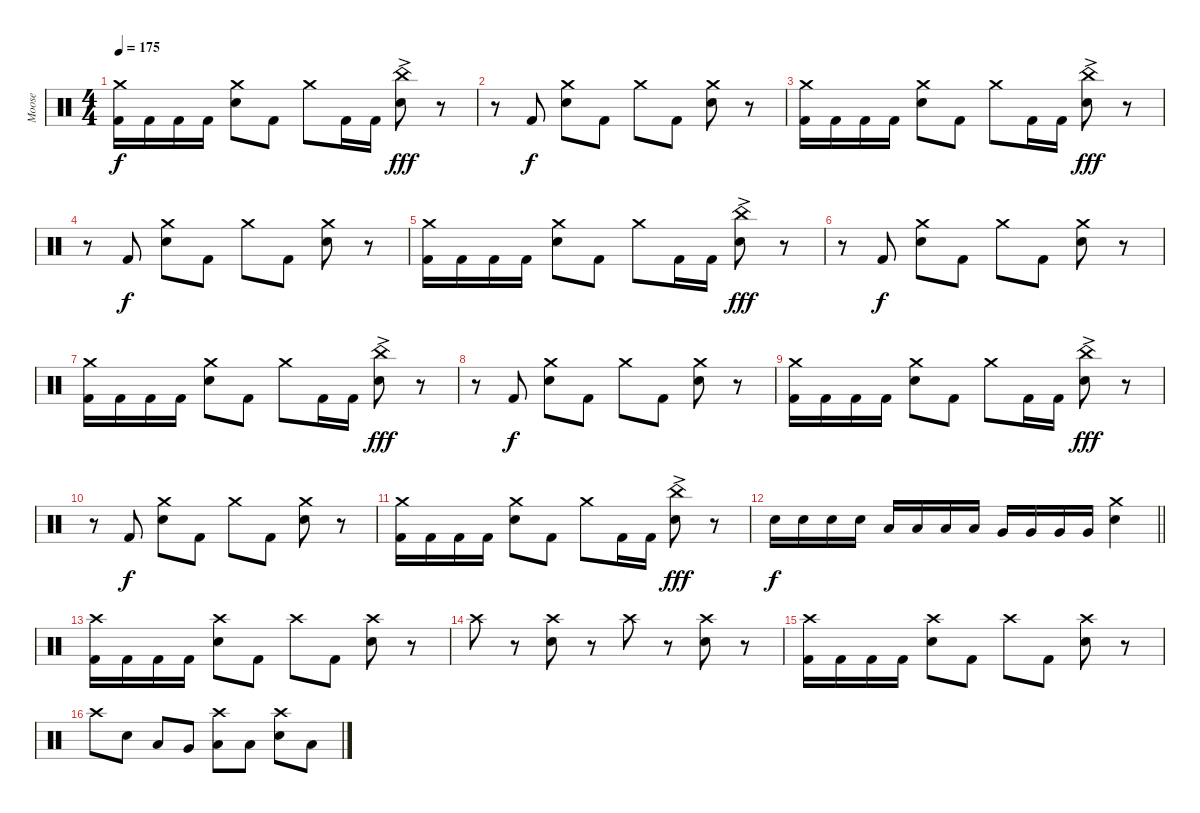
\track ("Moose" "Moose") {instrument percussion}
\staff {score}
\articulation defaults
\ts (4 4)
\tempo 175
\clef neutral
\ks c
("Crash medium (hit)" "Kick (hit) 2").16{dy f} "Kick (hit) 2".16 "Kick (hit) 2".16 "Kick (hit) 2".16 ("Crash medium (hit)" "Electric Snare (hit)").8 "Kick (hit) 2".8 "Crash medium (hit)".8 "Kick (hit) 2".16 "Kick (hit) 2".16 ("China (hit)"{ac} "Electric Snare (hit)").8{dy fff} r.8 |
r.8 "Kick (hit) 2".8{dy f} ("Crash medium (hit)" "Electric Snare (hit)").8 "Kick (hit) 2".8 "Crash medium (hit)".8 "Kick (hit) 2".8 ("Crash medium (hit)" "Electric Snare (hit)").8 r.8 |
("Crash medium (hit)" "Kick (hit) 2").16 "Kick (hit) 2".16 "Kick (hit) 2".16 "Kick (hit) 2".16 ("Crash medium (hit)" "Electric Snare (hit)").8 "Kick (hit) 2".8 "Crash medium (hit)".8 "Kick (hit) 2".16 "Kick (hit) 2".16 ("China (hit)"{ac} "Electric Snare (hit)").8{dy fff} r.8 |
r.8 "Kick (hit) 2".8{dy f} ("Crash medium (hit)" "Electric Snare (hit)").8 "Kick (hit) 2".8 "Crash medium (hit)".8 "Kick (hit) 2".8 ("Crash medium (hit)" "Electric Snare (hit)").8 r.8 |
("Crash medium (hit)" "Kick (hit) 2").16 "Kick (hit) 2".16 "Kick (hit) 2".16 "Kick (hit) 2".16 ("Crash medium (hit)" "Electric Snare (hit)").8 "Kick (hit) 2".8 "Crash medium (hit)".8 "Kick (hit) 2".16 "Kick (hit) 2".16 ("China (hit)"{ac} "Electric Snare (hit)").8{dy fff} r.8 |
r.8 "Kick (hit) 2".8{dy f} ("Crash medium (hit)" "Electric Snare (hit)").8 "Kick (hit) 2".8 "Crash medium (hit)".8 "Kick (hit) 2".8 ("Crash medium (hit)" "Electric Snare (hit)").8 r.8 |
("Crash medium (hit)" "Kick (hit) 2").16 "Kick (hit) 2".16 "Kick (hit) 2".16 "Kick (hit) 2".16 ("Crash medium (hit)" "Electric Snare (hit)").8 "Kick (hit) 2".8 "Crash medium (hit)".8 "Kick (hit) 2".16 "Kick (hit) 2".16 ("China (hit)"{ac} "Electric Snare (hit)").8{dy fff} r.8 |
r.8 "Kick (hit) 2".8{dy f} ("Crash medium (hit)" "Electric Snare (hit)").8 "Kick (hit) 2".8 "Crash medium (hit)".8 "Kick (hit) 2".8 ("Crash medium (hit)" "Electric Snare (hit)").8 r.8 |
("Crash medium (hit)" "Kick (hit) 2").16 "Kick (hit) 2".16 "Kick (hit) 2".16 "Kick (hit) 2".16 ("Crash medium (hit)" "Electric Snare (hit)").8 "Kick (hit) 2".8 "Crash medium (hit)".8 "Kick (hit) 2".16 "Kick (hit) 2".16 ("China (hit)"{ac} "Electric Snare (hit)").8{dy fff} r.8 |
r.8 "Kick (hit) 2".8{dy f} ("Crash medium (hit)" "Electric Snare (hit)").8 "Kick (hit) 2".8 "Crash medium (hit)".8 "Kick (hit) 2".8 ("Crash medium (hit)" "Electric Snare (hit)").8 r.8 |
("Crash medium (hit)" "Kick (hit) 2").16 "Kick (hit) 2".16 "Kick (hit) 2".16 "Kick (hit) 2".16 ("Crash medium (hit)" "Electric Snare (hit)").8 "Kick (hit) 2".8 "Crash medium (hit)".8 "Kick (hit) 2".16 "Kick (hit) 2".16 ("China (hit)"{ac} "Electric Snare (hit)").8{dy fff} r.8 |
\barLineRight lightlight "Electric Snare (hit)".16{dy f} "Electric Snare (hit)".16 "Electric Snare (hit)".16 "Electric Snare (hit)".16 "Low Tom (hit)".16 "Low Tom (hit)".16 "Low Tom (hit)".16 "Low Tom (hit)".16 "Very Low Tom (hit)".16 "Very Low Tom (hit)".16 "Very Low Tom (hit)".16 "Very Low Tom (hit)".16
("Crash medium (hit)" "Electric Snare (hit)").4 |
("Crash high (hit)" "Kick (hit) 2").16 "Kick (hit) 2".16 "Kick (hit) 2".16 "Kick (hit) 2".16 ("Crash high (hit)" "Electric Snare (hit)").8 "Kick (hit) 2".8 "Crash high (hit)".8 "Kick (hit) 2".8 ("Crash high (hit)" "Electric Snare (hit)").8 r.8 |
"Crash high (hit)".8 r.8 ("Crash high (hit)" "Electric Snare (hit)").8 r.8 "Crash high (hit)".8 r.8 ("Crash high (hit)" "Electric Snare (hit)").8 r.8 |
("Crash high (hit)" "Kick (hit) 2").16 "Kick (hit) 2".16 "Kick (hit) 2".16 "Kick (hit) 2".16 ("Crash high (hit)" "Electric Snare (hit)").8 "Kick (hit) 2".8 "Crash high (hit)".8 "Kick (hit) 2".8 ("Crash high (hit)" "Electric Snare (hit)").8 r.8 |
"Crash high (hit)".8 "Electric Snare (hit)".8 "Low Tom (hit)".8 "Very Low Tom (hit)".8 ("Crash high (hit)" "Low Floor Tom (hit)").8 "Low Floor Tom (hit)".8 ("Crash high (hit)" "Electric Snare (hit)").8 "Low Floor Tom (hit)".8
